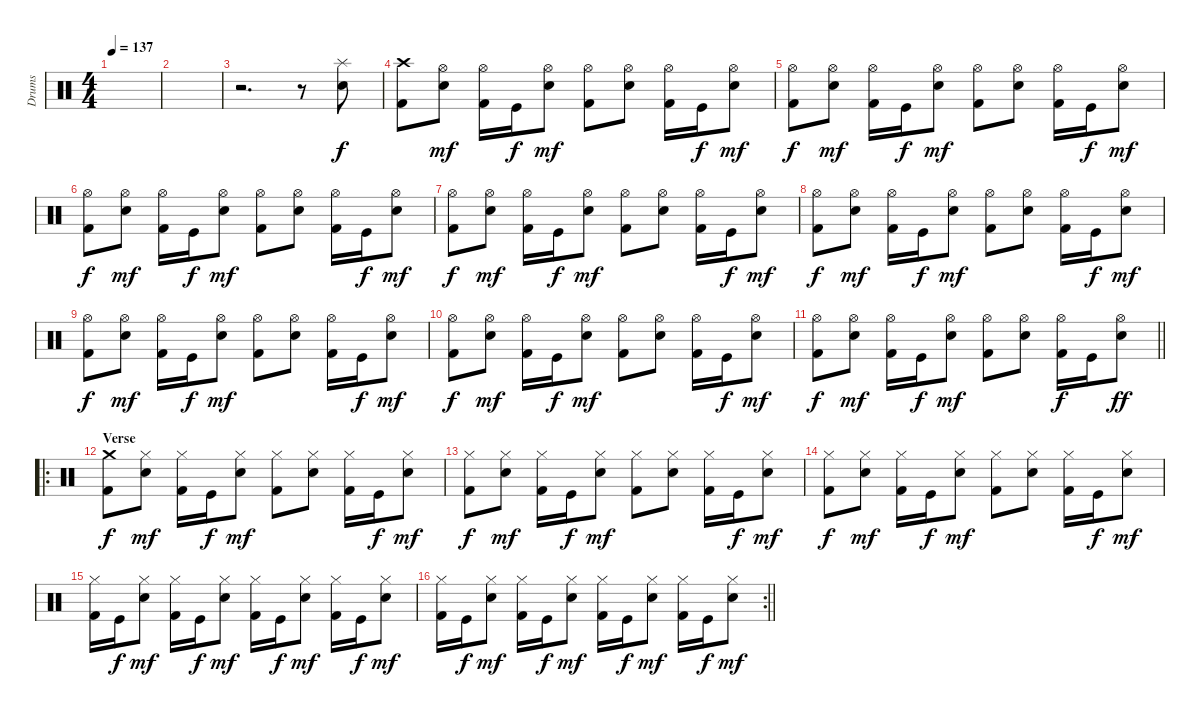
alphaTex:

\track ("Drums" "Drums") {instrument percussion}
\staff {score}
\articulation defaults
\ts (4 4)
\tempo 137
\clef neutral
\ks c
|
|
r.2{d} r.8 ("Splash (hit)" "Snare (hit) 2").8 |
("Crash high (hit)" "Kick (hit) 2").8 ("Hi-Hat (open)" "Snare (hit) 2").8{dy mf} ("Hi-Hat (open)" "Kick (hit) 2").16 "Kick (hit)".16{dy f} ("Hi-Hat (open)" "Snare (hit) 2").8{dy mf} ("Hi-Hat (open)" "Kick (hit) 2").8 ("Hi-Hat (open)" "Snare (hit) 2").8 ("Hi-Hat (open)" "Kick (hit) 2").16 "Kick (hit)".16{dy f} ("Hi-Hat (open)" "Snare (hit) 2").8{dy mf} |
("Hi-Hat (open)" "Kick (hit) 2").8{dy f} ("Hi-Hat (open)" "Snare (hit) 2").8{dy mf} ("Hi-Hat (open)" "Kick (hit) 2").16 "Kick (hit)".16{dy f} ("Hi-Hat (open)" "Snare (hit) 2").8{dy mf} ("Hi-Hat (open)" "Kick (hit) 2").8 ("Hi-Hat (open)" "Snare (hit) 2").8 ("Hi-Hat (open)" "Kick (hit) 2").16 "Kick (hit)".16{dy f} ("Hi-Hat (open)" "Snare (hit) 2").8{dy mf} |
("Hi-Hat (open)" "Kick (hit) 2").8{dy f} ("Hi-Hat (open)" "Snare (hit) 2").8{dy mf} ("Hi-Hat (open)" "Kick (hit) 2").16 "Kick (hit)".16{dy f} ("Hi-Hat (open)" "Snare (hit) 2").8{dy mf} ("Hi-Hat (open)" "Kick (hit) 2").8 ("Hi-Hat (open)" "Snare (hit) 2").8 ("Hi-Hat (open)" "Kick (hit) 2").16 "Kick (hit)".16{dy f} ("Hi-Hat (open)" "Snare (hit) 2").8{dy mf} |
("Hi-Hat (open)" "Kick (hit) 2").8{dy f} ("Hi-Hat (open)" "Snare (hit) 2").8{dy mf} ("Hi-Hat (open)" "Kick (hit) 2").16 "Kick (hit)".16{dy f} ("Hi-Hat (open)" "Snare (hit) 2").8{dy mf} ("Hi-Hat (open)" "Kick (hit) 2").8 ("Hi-Hat (open)" "Snare (hit) 2").8 ("Hi-Hat (open)" "Kick (hit) 2").16 "Kick (hit)".16{dy f} ("Hi-Hat (open)" "Snare (hit) 2").8{dy mf} |
("Hi-Hat (open)" "Kick (hit) 2").8{dy f} ("Hi-Hat (open)" "Snare (hit) 2").8{dy mf} ("Hi-Hat (open)" "Kick (hit) 2").16 "Kick (hit)".16{dy f} ("Hi-Hat (open)" "Snare (hit) 2").8{dy mf} ("Hi-Hat (open)" "Kick (hit) 2").8 ("Hi-Hat (open)" "Snare (hit) 2").8 ("Hi-Hat (open)" "Kick (hit) 2").16 "Kick (hit)".16{dy f} ("Hi-Hat (open)" "Snare (hit) 2").8{dy mf} |
("Hi-Hat (open)" "Kick (hit) 2").8{dy f} ("Hi-Hat (open)" "Snare (hit) 2").8{dy mf} ("Hi-Hat (open)" "Kick (hit) 2").16 "Kick (hit)".16{dy f} ("Hi-Hat (open)" "Snare (hit) 2").8{dy mf} ("Hi-Hat (open)" "Kick (hit) 2").8 ("Hi-Hat (open)" "Snare (hit) 2").8 ("Hi-Hat (open)" "Kick (hit) 2").16 "Kick (hit)".16{dy f} ("Hi-Hat (open)" "Snare (hit) 2").8{dy mf} |
("Hi-Hat (open)" "Kick (hit) 2").8{dy f} ("Hi-Hat (open)" "Snare (hit) 2").8{dy mf} ("Hi-Hat (open)" "Kick (hit) 2").16 "Kick (hit)".16{dy f} ("Hi-Hat (open)" "Snare (hit) 2").8{dy mf} ("Hi-Hat (open)" "Kick (hit) 2").8 ("Hi-Hat (open)" "Snare (hit) 2").8 ("Hi-Hat (open)" "Kick (hit) 2").16 "Kick (hit)".16{dy f} ("Hi-Hat (open)" "Snare (hit) 2").8{dy mf} |
\barLineRight lightlight
("Hi-Hat (open)" "Kick (hit) 2").8{dy f} ("Hi-Hat (open)" "Snare (hit) 2").8{dy mf} ("Hi-Hat (open)" "Kick (hit) 2").16 "Kick (hit)".16{dy f} ("Hi-Hat (open)" "Snare (hit) 2").8{dy mf} ("Hi-Hat (open)" "Kick (hit) 2").8 ("Hi-Hat (open)" "Snare (hit) 2").8 ("Hi-Hat (open)" "Kick (hit) 2").16{dy f} "Kick (hit)".16 ("Hi-Hat (open)" "Snare (hit) 2").8{dy ff} |
\ro
\section ("" "Verse")
("Crash medium (hit)" "Kick (hit) 2").8{dy f} ("Hi-Hat (closed)" "Snare (hit) 2").8{dy mf} ("Hi-Hat (closed)" "Kick (hit) 2").16 "Kick (hit)".16{dy f} ("Hi-Hat (closed)" "Snare (hit) 2").8{dy mf} ("Hi-Hat (closed)" "Kick (hit) 2").8 ("Hi-Hat (closed)" "Snare (hit) 2").8 ("Hi-Hat (closed)" "Kick (hit) 2").16 "Kick (hit)".16{dy f} ("Hi-Hat (closed)" "Snare (hit) 2").8{dy mf} |
("Hi-Hat (closed)" "Kick (hit) 2").8{dy f} ("Hi-Hat (closed)" "Snare (hit) 2").8{dy mf} ("Hi-Hat (closed)" "Kick (hit) 2").16 "Kick (hit)".16{dy f} ("Hi-Hat (closed)" "Snare (hit) 2").8{dy mf} ("Hi-Hat (closed)" "Kick (hit) 2").8 ("Hi-Hat (closed)" "Snare (hit) 2").8 ("Hi-Hat (closed)" "Kick (hit) 2").16 "Kick (hit)".16{dy f} ("Hi-Hat (closed)" "Snare (hit) 2").8{dy mf} |
("Hi-Hat (closed)" "Kick (hit) 2").8{dy f} ("Hi-Hat (closed)" "Snare (hit) 2").8{dy mf} ("Hi-Hat (closed)" "Kick (hit) 2").16 "Kick (hit)".16{dy f} ("Hi-Hat (closed)" "Snare (hit) 2").8{dy mf} ("Hi-Hat (closed)" "Kick (hit) 2").8 ("Hi-Hat (closed)" "Snare (hit) 2").8 ("Hi-Hat (closed)" "Kick (hit) 2").16 "Kick (hit)".16{dy f} ("Hi-Hat (closed)" "Snare (hit) 2").8{dy mf} |
("Hi-Hat (closed)" "Kick (hit) 2").16 "Kick (hit)".16{dy f} ("Hi-Hat (closed)" "Snare (hit) 2").8{dy mf} ("Hi-Hat (closed)" "Kick (hit) 2").16 "Kick (hit)".16{dy f} ("Hi-Hat (closed)" "Snare (hit) 2").8{dy mf} ("Hi-Hat (closed)" "Kick (hit) 2").16 "Kick (hit)".16{dy f} ("Hi-Hat (closed)" "Snare (hit) 2").8{dy mf} ("Hi-Hat (closed)" "Kick (hit) 2").16 "Kick (hit)".16{dy f} ("Hi-Hat (closed)" "Snare (hit) 2").8{dy mf} |
\rc 2
\barLineRight lightlight
("Hi-Hat (closed)" "Kick (hit) 2").16 "Kick (hit)".16{dy f} ("Hi-Hat (closed)" "Snare (hit) 2").8{dy mf} ("Hi-Hat (closed)" "Kick (hit) 2").16 "Kick (hit)".16{dy f} ("Hi-Hat (closed)" "Snare (hit) 2").8{dy mf} ("Hi-Hat (closed)" "Kick (hit) 2").16 "Kick (hit)".16{dy f} ("Hi-Hat (closed)" "Snare (hit) 2").8{dy mf} ("Hi-Hat (closed)" "Kick (hit) 2").16 "Kick (hit)".16{dy f} ("Hi-Hat (closed)" "Snare (hit) 2").8{dy mf}
